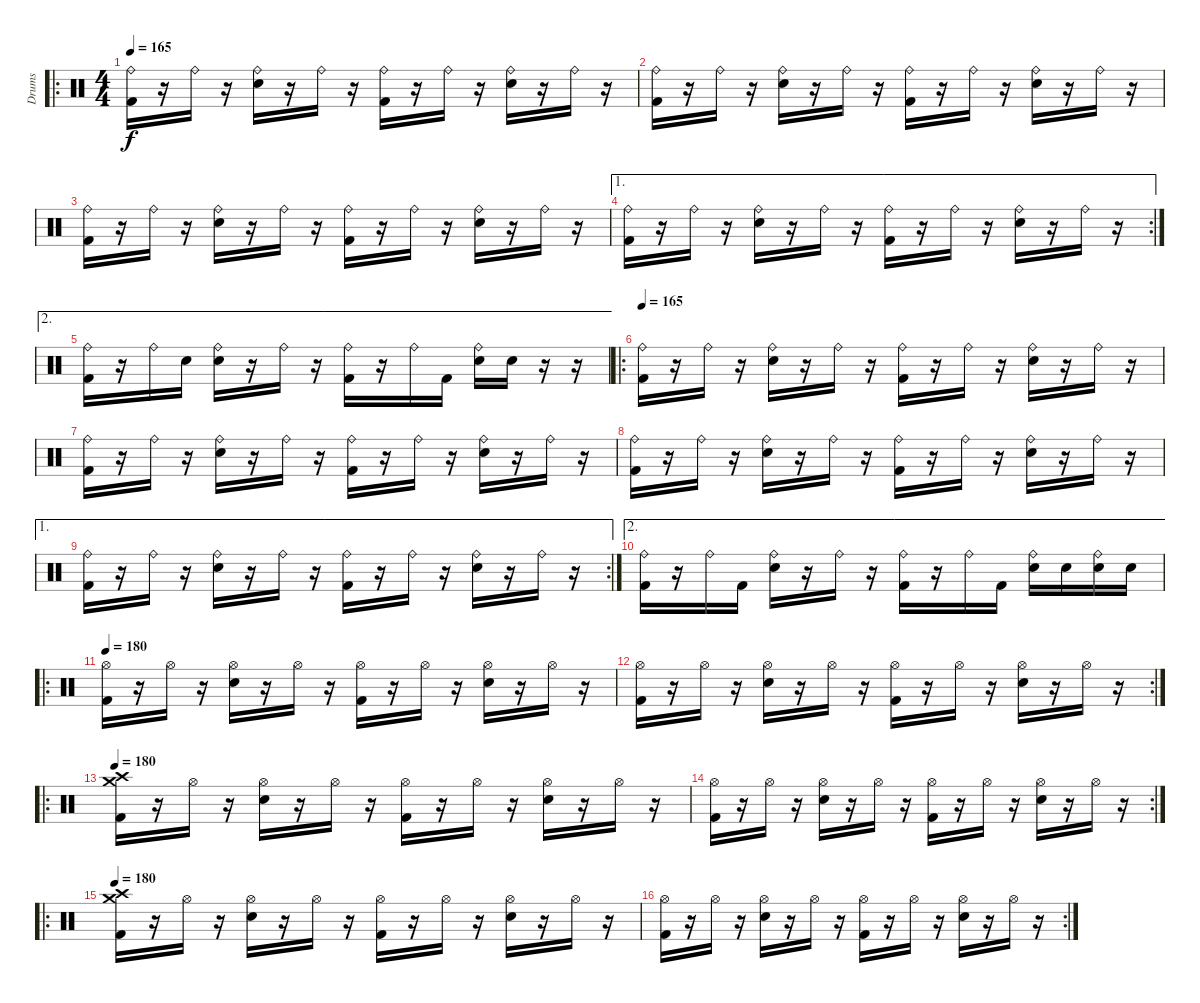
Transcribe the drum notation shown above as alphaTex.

\track ("Drums" "Drums") {instrument percussion}
\staff {score}
\articulation defaults
\ro
\ts (4 4)
\tempo 165
\clef neutral
\ks c
("Ride (bell)" "Kick (hit) 2").16{dy f} r.16 "Ride (bell)".16 r.16 ("Ride (bell)" "Snare (hit) 2").16 r.16 "Ride (bell)".16 r.16 ("Ride (bell)" "Kick (hit) 2").16 r.16 "Ride (bell)".16 r.16 ("Ride (bell)" "Snare (hit) 2").16 r.16 "Ride (bell)".16 r.16 |
("Ride (bell)" "Kick (hit) 2").16 r.16 "Ride (bell)".16 r.16 ("Ride (bell)" "Snare (hit) 2").16 r.16 "Ride (bell)".16 r.16 ("Ride (bell)" "Kick (hit) 2").16 r.16 "Ride (bell)".16 r.16 ("Ride (bell)" "Snare (hit) 2").16 r.16 "Ride (bell)".16 r.16 |
("Ride (bell)" "Kick (hit) 2").16 r.16 "Ride (bell)".16 r.16 ("Ride (bell)" "Snare (hit) 2").16 r.16 "Ride (bell)".16 r.16 ("Ride (bell)" "Kick (hit) 2").16 r.16 "Ride (bell)".16 r.16 ("Ride (bell)" "Snare (hit) 2").16 r.16 "Ride (bell)".16 r.16 |
\ae 1
\rc 2
("Ride (bell)" "Kick (hit) 2").16 r.16 "Ride (bell)".16 r.16 ("Ride (bell)" "Snare (hit) 2").16 r.16 "Ride (bell)".16 r.16 ("Ride (bell)" "Kick (hit) 2").16 r.16 "Ride (bell)".16 r.16 ("Ride (bell)" "Snare (hit) 2").16 r.16 "Ride (bell)".16 r.16 |
\ae 2
("Ride (bell)" "Kick (hit) 2").16 r.16 "Ride (bell)".16 "Snare (hit) 2".16 ("Ride (bell)" "Snare (hit) 2").16 r.16 "Ride (bell)".16 r.16 ("Ride (bell)" "Kick (hit) 2").16 r.16 "Ride (bell)".16 "Kick (hit) 2".16 ("Ride (bell)" "Snare (hit) 2").16 "Snare (hit) 2".16 r.16 r.16 |
\ro
\tempo 165
("Ride (bell)" "Kick (hit) 2").16 r.16 "Ride (bell)".16 r.16 ("Ride (bell)" "Snare (hit) 2").16 r.16 "Ride (bell)".16 r.16 ("Ride (bell)" "Kick (hit) 2").16 r.16 "Ride (bell)".16 r.16 ("Ride (bell)" "Snare (hit) 2").16 r.16 "Ride (bell)".16 r.16 |
("Ride (bell)" "Kick (hit) 2").16 r.16 "Ride (bell)".16 r.16 ("Ride (bell)" "Snare (hit) 2").16 r.16 "Ride (bell)".16 r.16 ("Ride (bell)" "Kick (hit) 2").16 r.16 "Ride (bell)".16 r.16 ("Ride (bell)" "Snare (hit) 2").16 r.16 "Ride (bell)".16 r.16 |
("Ride (bell)" "Kick (hit) 2").16 r.16 "Ride (bell)".16 r.16 ("Ride (bell)" "Snare (hit) 2").16 r.16 "Ride (bell)".16 r.16 ("Ride (bell)" "Kick (hit) 2").16 r.16 "Ride (bell)".16 r.16 ("Ride (bell)" "Snare (hit) 2").16 r.16 "Ride (bell)".16 r.16 |
\ae 1
\rc 2
("Ride (bell)" "Kick (hit) 2").16 r.16 "Ride (bell)".16 r.16 ("Ride (bell)" "Snare (hit) 2").16 r.16 "Ride (bell)".16 r.16 ("Ride (bell)" "Kick (hit) 2").16 r.16 "Ride (bell)".16 r.16 ("Ride (bell)" "Snare (hit) 2").16 r.16 "Ride (bell)".16 r.16 |
\ae 2
("Ride (bell)" "Kick (hit) 2").16 r.16 "Ride (bell)".16 "Kick (hit) 2".16 ("Ride (bell)" "Snare (hit) 2").16 r.16 "Ride (bell)".16 r.16 ("Ride (bell)" "Kick (hit) 2").16 r.16 "Ride (bell)".16 "Kick (hit) 2".16 ("Ride (bell)" "Snare (hit) 2").16 "Snare (hit) 2".16 ("Ride (bell)" "Snare (hit) 2").16 "Snare (hit) 2".16 |
\ro
\tempo 180
("Hi-Hat (open)" "Kick (hit) 2").16 r.16 "Hi-Hat (open)".16 r.16 ("Hi-Hat (open)" "Snare (hit) 2").16 r.16 "Hi-Hat (open)".16 r.16 ("Hi-Hat (open)" "Kick (hit) 2").16 r.16 "Hi-Hat (open)".16 r.16 ("Hi-Hat (open)" "Snare (hit) 2").16 r.16 "Hi-Hat (open)".16 r.16 |
\rc 2
("Hi-Hat (open)" "Kick (hit) 2").16 r.16 "Hi-Hat (open)".16 r.16 ("Hi-Hat (open)" "Snare (hit) 2").16 r.16 "Hi-Hat (open)".16 r.16 ("Hi-Hat (open)" "Kick (hit) 2").16 r.16 "Hi-Hat (open)".16 r.16 ("Hi-Hat (open)" "Snare (hit) 2").16 r.16 "Hi-Hat (open)".16 r.16 |
\ro
\tempo 180
("Crash medium (hit)" "Crash high (hit)" "Kick (hit) 2").16 r.16 "Hi-Hat (open)".16 r.16 ("Hi-Hat (open)" "Snare (hit) 2").16 r.16 "Hi-Hat (open)".16 r.16 ("Hi-Hat (open)" "Kick (hit) 2").16 r.16 "Hi-Hat (open)".16 r.16 ("Hi-Hat (open)" "Snare (hit) 2").16 r.16 "Hi-Hat (open)".16 r.16 |
\rc 2
("Hi-Hat (open)" "Kick (hit) 2").16 r.16 "Hi-Hat (open)".16 r.16 ("Hi-Hat (open)" "Snare (hit) 2").16 r.16 "Hi-Hat (open)".16 r.16 ("Hi-Hat (open)" "Kick (hit) 2").16 r.16 "Hi-Hat (open)".16 r.16 ("Hi-Hat (open)" "Snare (hit) 2").16 r.16 "Hi-Hat (open)".16 r.16 |
\ro
\tempo 180
("Crash high (hit)" "Crash medium (hit)" "Kick (hit) 2").16 r.16 "Hi-Hat (open)".16 r.16 ("Hi-Hat (open)" "Snare (hit) 2").16 r.16 "Hi-Hat (open)".16 r.16 ("Hi-Hat (open)" "Kick (hit) 2").16 r.16 "Hi-Hat (open)".16 r.16 ("Hi-Hat (open)" "Snare (hit) 2").16 r.16 "Hi-Hat (open)".16 r.16 |
\rc 2
("Hi-Hat (open)" "Kick (hit) 2").16 r.16 "Hi-Hat (open)".16 r.16 ("Hi-Hat (open)" "Snare (hit) 2").16 r.16 "Hi-Hat (open)".16 r.16 ("Hi-Hat (open)" "Kick (hit) 2").16 r.16 "Hi-Hat (open)".16 r.16 ("Hi-Hat (open)" "Snare (hit) 2").16 r.16 "Hi-Hat (open)".16 r.16
